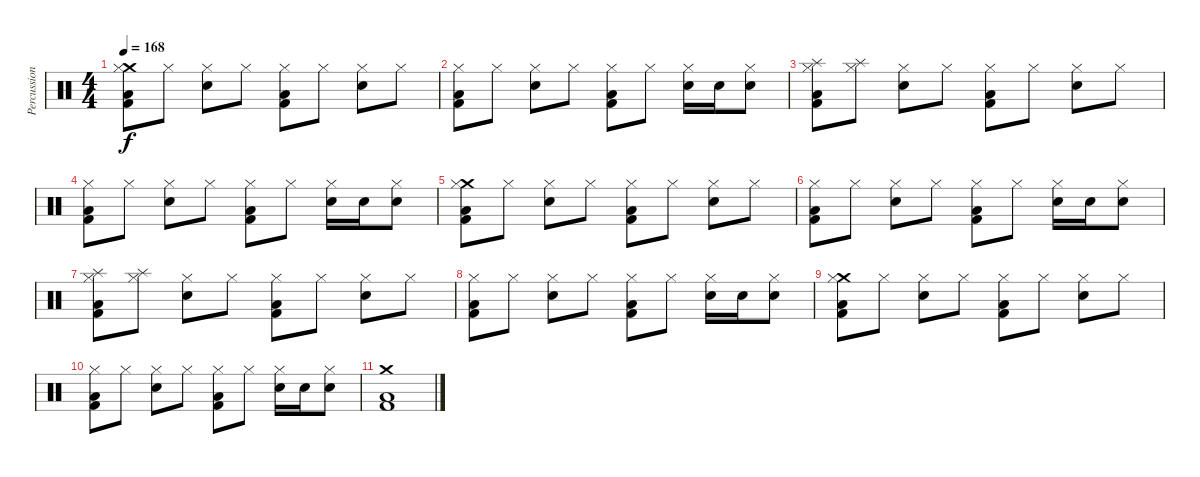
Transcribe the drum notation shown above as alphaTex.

\track ("Percussions" "Percussion") {instrument percussion}
\staff {score}
\articulation defaults
\ts (4 4)
\tempo 168
\clef neutral
\ks c
("Kick (hit) 2" "Low Floor Tom (hit)" "Crash medium (hit)" "Hi-Hat (closed)").8{dy f} "Hi-Hat (closed)".8 ("Snare (hit) 2" "Hi-Hat (closed)").8 "Hi-Hat (closed)".8 ("Kick (hit) 2" "Low Floor Tom (hit)" "Hi-Hat (closed)").8 "Hi-Hat (closed)".8 ("Snare (hit) 2" "Hi-Hat (closed)").8 "Hi-Hat (closed)".8 |
("Kick (hit) 2" "Low Floor Tom (hit)" "Hi-Hat (closed)").8 "Hi-Hat (closed)".8 ("Snare (hit) 2" "Hi-Hat (closed)").8 "Hi-Hat (closed)".8 ("Kick (hit) 2" "Low Floor Tom (hit)" "Hi-Hat (closed)").8 "Hi-Hat (closed)".8 ("Snare (hit) 2" "Hi-Hat (closed)").16 "Snare (hit) 2".16 ("Snare (hit) 2" "Hi-Hat (closed)").8 |
("Kick (hit) 2" "Low Floor Tom (hit)" "Splash (hit)" "Hi-Hat (closed)").8 ("Splash (hit)" "Hi-Hat (closed)").8 ("Snare (hit) 2" "Hi-Hat (closed)").8 "Hi-Hat (closed)".8 ("Kick (hit) 2" "Low Floor Tom (hit)" "Hi-Hat (closed)").8 "Hi-Hat (closed)".8 ("Snare (hit) 2" "Hi-Hat (closed)").8 "Hi-Hat (closed)".8 |
("Kick (hit) 2" "Low Floor Tom (hit)" "Hi-Hat (closed)").8 "Hi-Hat (closed)".8 ("Snare (hit) 2" "Hi-Hat (closed)").8 "Hi-Hat (closed)".8 ("Kick (hit) 2" "Low Floor Tom (hit)" "Hi-Hat (closed)").8 "Hi-Hat (closed)".8 ("Snare (hit) 2" "Hi-Hat (closed)").16 "Snare (hit) 2".16 ("Snare (hit) 2" "Hi-Hat (closed)").8 |
("Kick (hit) 2" "Low Floor Tom (hit)" "Crash medium (hit)" "Hi-Hat (closed)").8 "Hi-Hat (closed)".8 ("Snare (hit) 2" "Hi-Hat (closed)").8 "Hi-Hat (closed)".8 ("Kick (hit) 2" "Low Floor Tom (hit)" "Hi-Hat (closed)").8 "Hi-Hat (closed)".8 ("Snare (hit) 2" "Hi-Hat (closed)").8 "Hi-Hat (closed)".8 |
("Kick (hit) 2" "Low Floor Tom (hit)" "Hi-Hat (closed)").8 "Hi-Hat (closed)".8 ("Snare (hit) 2" "Hi-Hat (closed)").8 "Hi-Hat (closed)".8 ("Kick (hit) 2" "Low Floor Tom (hit)" "Hi-Hat (closed)").8 "Hi-Hat (closed)".8 ("Snare (hit) 2" "Hi-Hat (closed)").16 "Snare (hit) 2".16 ("Snare (hit) 2" "Hi-Hat (closed)").8 |
("Kick (hit) 2" "Low Floor Tom (hit)" "Splash (hit)" "Hi-Hat (closed)").8 ("Splash (hit)" "Hi-Hat (closed)").8 ("Snare (hit) 2" "Hi-Hat (closed)").8 "Hi-Hat (closed)".8 ("Kick (hit) 2" "Low Floor Tom (hit)" "Hi-Hat (closed)").8 "Hi-Hat (closed)".8 ("Snare (hit) 2" "Hi-Hat (closed)").8 "Hi-Hat (closed)".8 |
("Kick (hit) 2" "Low Floor Tom (hit)" "Hi-Hat (closed)").8 "Hi-Hat (closed)".8 ("Snare (hit) 2" "Hi-Hat (closed)").8 "Hi-Hat (closed)".8 ("Kick (hit) 2" "Low Floor Tom (hit)" "Hi-Hat (closed)").8 "Hi-Hat (closed)".8 ("Snare (hit) 2" "Hi-Hat (closed)").16 "Snare (hit) 2".16 ("Snare (hit) 2" "Hi-Hat (closed)").8 |
("Kick (hit) 2" "Low Floor Tom (hit)" "Crash medium (hit)" "Hi-Hat (closed)").8 "Hi-Hat (closed)".8 ("Snare (hit) 2" "Hi-Hat (closed)").8 "Hi-Hat (closed)".8 ("Kick (hit) 2" "Low Floor Tom (hit)" "Hi-Hat (closed)").8 "Hi-Hat (closed)".8 ("Snare (hit) 2" "Hi-Hat (closed)").8 "Hi-Hat (closed)".8 |
("Kick (hit) 2" "Low Floor Tom (hit)" "Hi-Hat (closed)").8 "Hi-Hat (closed)".8 ("Snare (hit) 2" "Hi-Hat (closed)").8 "Hi-Hat (closed)".8 ("Kick (hit) 2" "Low Floor Tom (hit)" "Hi-Hat (closed)").8 "Hi-Hat (closed)".8 ("Snare (hit) 2" "Hi-Hat (closed)").16 "Snare (hit) 2".16 ("Snare (hit) 2" "Hi-Hat (closed)").8 |
("Kick (hit) 2" "Low Floor Tom (hit)" "Crash medium (hit)").1
